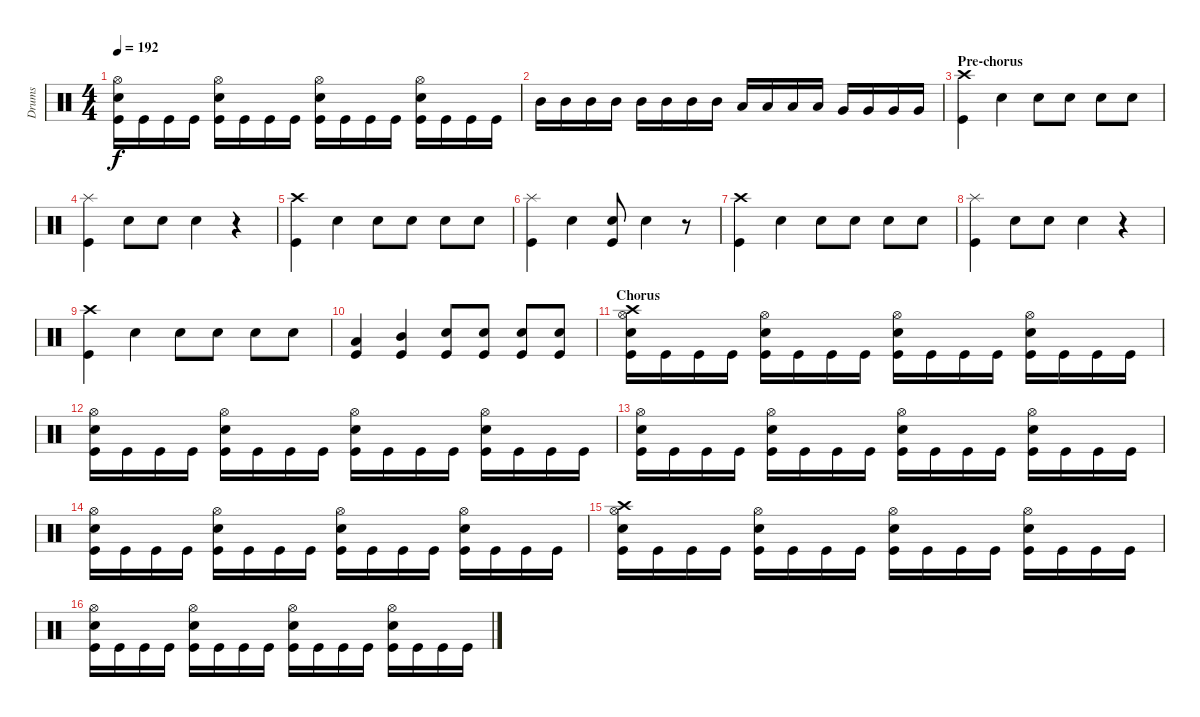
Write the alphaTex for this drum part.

\track ("Drums" "Drums") {instrument percussion}
\staff {score}
\articulation defaults
\ts (4 4)
\tempo 192
\clef neutral
\ks c
("Hi-Hat (open)" "Snare (hit) 2" "Kick (hit)").16{dy f} "Kick (hit)".16 "Kick (hit)".16 "Kick (hit)".16 ("Hi-Hat (open)" "Snare (hit) 2" "Kick (hit)").16 "Kick (hit)".16 "Kick (hit)".16 "Kick (hit)".16 ("Hi-Hat (open)" "Snare (hit) 2" "Kick (hit)").16 "Kick (hit)".16 "Kick (hit)".16 "Kick (hit)".16 ("Hi-Hat (open)" "Snare (hit) 2" "Kick (hit)").16 "Kick (hit)".16 "Kick (hit)".16 "Kick (hit)".16 |
"Mid Tom (hit)".16 "Mid Tom (hit)".16 "Mid Tom (hit)".16 "Mid Tom (hit)".16 "Mid Tom (hit)".16 "Mid Tom (hit)".16 "Mid Tom (hit)".16 "Mid Tom (hit)".16 "Low Tom (hit)".16 "Low Tom (hit)".16 "Low Tom (hit)".16 "Low Tom (hit)".16 "Very Low Tom (hit)".16 "Very Low Tom (hit)".16 "Very Low Tom (hit)".16 "Very Low Tom (hit)".16 |
\section ("" "Pre-chorus")
("Crash high (hit)" "Kick (hit)").4 "Snare (hit) 2".4 "Snare (hit) 2".8 "Snare (hit) 2".8 "Snare (hit) 2".8 "Snare (hit) 2".8 |
("Splash (hit)" "Kick (hit)").4 "Snare (hit) 2".8 "Snare (hit) 2".8 "Snare (hit) 2".4 r.4 |
("Crash high (hit)" "Kick (hit)").4 "Snare (hit) 2".4 "Snare (hit) 2".8 "Snare (hit) 2".8 "Snare (hit) 2".8 "Snare (hit) 2".8 |
("Splash (hit)" "Kick (hit)").4 "Snare (hit) 2"{tr (38 16)}.4 ("Snare (hit) 2" "Kick (hit)").8 "Snare (hit) 2".4 r.8 |
("Crash high (hit)" "Kick (hit)").4 "Snare (hit) 2".4 "Snare (hit) 2".8 "Snare (hit) 2".8 "Snare (hit) 2".8 "Snare (hit) 2".8 |
("Splash (hit)" "Kick (hit)").4 "Snare (hit) 2".8 "Snare (hit) 2".8 "Snare (hit) 2".4 r.4 |
("Crash high (hit)" "Kick (hit)").4 "Snare (hit) 2"{tr (38 16)}.4 "Snare (hit) 2".8 "Snare (hit) 2".8 "Snare (hit) 2".8 "Snare (hit) 2".8 |
("Low Tom (hit)" "Kick (hit)").4 ("Mid Tom (hit)" "Kick (hit)").4 ("Snare (hit) 2" "Kick (hit)").8 ("Snare (hit) 2" "Kick (hit)").8 ("Snare (hit) 2" "Kick (hit)").8 ("Snare (hit) 2" "Kick (hit)").8 |
\section ("" "Chorus")
("Crash high (hit)" "Hi-Hat (open)" "Snare (hit) 2" "Kick (hit)").16 "Kick (hit)".16 "Kick (hit)".16 "Kick (hit)".16 ("Hi-Hat (open)" "Snare (hit) 2" "Kick (hit)").16 "Kick (hit)".16 "Kick (hit)".16 "Kick (hit)".16 ("Hi-Hat (open)" "Snare (hit) 2" "Kick (hit)").16 "Kick (hit)".16 "Kick (hit)".16 "Kick (hit)".16 ("Hi-Hat (open)" "Snare (hit) 2" "Kick (hit)").16 "Kick (hit)".16 "Kick (hit)".16 "Kick (hit)".16 |
("Hi-Hat (open)" "Snare (hit) 2" "Kick (hit)").16 "Kick (hit)".16 "Kick (hit)".16 "Kick (hit)".16 ("Hi-Hat (open)" "Snare (hit) 2" "Kick (hit)").16 "Kick (hit)".16 "Kick (hit)".16 "Kick (hit)".16 ("Hi-Hat (open)" "Snare (hit) 2" "Kick (hit)").16 "Kick (hit)".16 "Kick (hit)".16 "Kick (hit)".16 ("Hi-Hat (open)" "Snare (hit) 2" "Kick (hit)").16 "Kick (hit)".16 "Kick (hit)".16 "Kick (hit)".16 |
("Hi-Hat (open)" "Snare (hit) 2" "Kick (hit)").16 "Kick (hit)".16 "Kick (hit)".16 "Kick (hit)".16 ("Hi-Hat (open)" "Snare (hit) 2" "Kick (hit)").16 "Kick (hit)".16 "Kick (hit)".16 "Kick (hit)".16 ("Hi-Hat (open)" "Snare (hit) 2" "Kick (hit)").16 "Kick (hit)".16 "Kick (hit)".16 "Kick (hit)".16 ("Hi-Hat (open)" "Snare (hit) 2" "Kick (hit)").16 "Kick (hit)".16 "Kick (hit)".16 "Kick (hit)".16 |
("Hi-Hat (open)" "Snare (hit) 2" "Kick (hit)").16 "Kick (hit)".16 "Kick (hit)".16 "Kick (hit)".16 ("Hi-Hat (open)" "Snare (hit) 2" "Kick (hit)").16 "Kick (hit)".16 "Kick (hit)".16 "Kick (hit)".16 ("Hi-Hat (open)" "Snare (hit) 2" "Kick (hit)").16 "Kick (hit)".16 "Kick (hit)".16 "Kick (hit)".16 ("Hi-Hat (open)" "Snare (hit) 2" "Kick (hit)").16 "Kick (hit)".16 "Kick (hit)".16 "Kick (hit)".16 |
("Crash high (hit)" "Hi-Hat (open)" "Snare (hit) 2" "Kick (hit)").16 "Kick (hit)".16 "Kick (hit)".16 "Kick (hit)".16 ("Hi-Hat (open)" "Snare (hit) 2" "Kick (hit)").16 "Kick (hit)".16 "Kick (hit)".16 "Kick (hit)".16 ("Hi-Hat (open)" "Snare (hit) 2" "Kick (hit)").16 "Kick (hit)".16 "Kick (hit)".16 "Kick (hit)".16 ("Hi-Hat (open)" "Snare (hit) 2" "Kick (hit)").16 "Kick (hit)".16 "Kick (hit)".16 "Kick (hit)".16 |
("Hi-Hat (open)" "Snare (hit) 2" "Kick (hit)").16 "Kick (hit)".16 "Kick (hit)".16 "Kick (hit)".16 ("Hi-Hat (open)" "Snare (hit) 2" "Kick (hit)").16 "Kick (hit)".16 "Kick (hit)".16 "Kick (hit)".16 ("Hi-Hat (open)" "Snare (hit) 2" "Kick (hit)").16 "Kick (hit)".16 "Kick (hit)".16 "Kick (hit)".16 ("Hi-Hat (open)" "Snare (hit) 2" "Kick (hit)").16 "Kick (hit)".16 "Kick (hit)".16 "Kick (hit)".16
